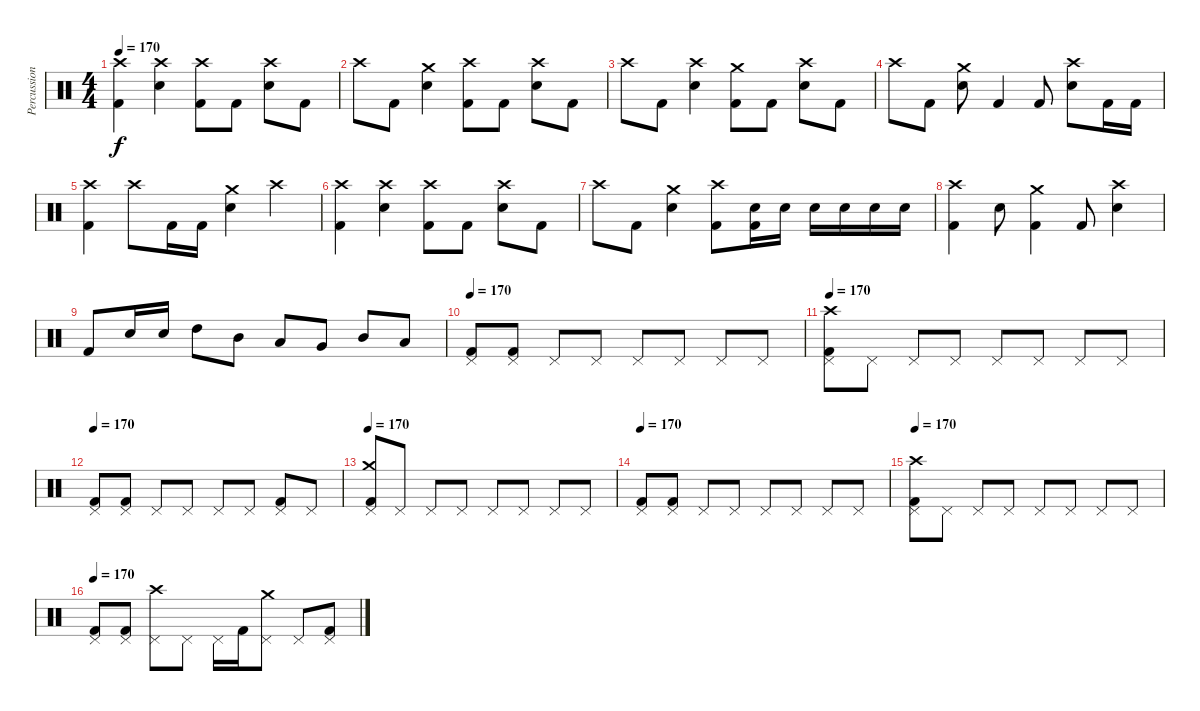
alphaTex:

\track ("Percussion" "Percussion") {instrument percussion}
\staff {score}
\articulation defaults
\ts (4 4)
\tempo 170
\clef neutral
\ks c
("Crash high (hit)" "Kick (hit) 2").4{dy f} ("Crash high (hit)" "Electric Snare (hit)").4 ("Crash high (hit)" "Kick (hit) 2").8 "Kick (hit) 2".8 ("Crash high (hit)" "Electric Snare (hit)").8 "Kick (hit) 2".8 |
"Crash high (hit)".8 "Kick (hit) 2".8 ("Crash medium (hit)" "Electric Snare (hit)").4 ("Crash high (hit)" "Kick (hit) 2").8 "Kick (hit) 2".8 ("Crash high (hit)" "Electric Snare (hit)").8 "Kick (hit) 2".8 |
"Crash high (hit)".8 "Kick (hit) 2".8 ("Crash high (hit)" "Electric Snare (hit)").4 ("Crash medium (hit)" "Kick (hit) 2").8 "Kick (hit) 2".8 ("Crash high (hit)" "Electric Snare (hit)").8 "Kick (hit) 2".8 |
"Crash high (hit)".8 "Kick (hit) 2".8 ("Crash medium (hit)" "Electric Snare (hit)").8 "Kick (hit) 2".4 "Kick (hit) 2".8 ("Crash high (hit)" "Electric Snare (hit)").8 "Kick (hit) 2".16 "Kick (hit) 2".16 |
("Crash high (hit)" "Kick (hit) 2").4 "Crash high (hit)".8 "Kick (hit) 2".16 "Kick (hit) 2".16 ("Crash medium (hit)" "Electric Snare (hit)").4 "Crash high (hit)".4 |
("Crash high (hit)" "Kick (hit) 2").4 ("Crash high (hit)" "Electric Snare (hit)").4 ("Crash high (hit)" "Kick (hit) 2").8 "Kick (hit) 2".8 ("Crash high (hit)" "Electric Snare (hit)").8 "Kick (hit) 2".8 |
"Crash high (hit)".8 "Kick (hit) 2".8 ("Crash medium (hit)" "Electric Snare (hit)").4 ("Crash high (hit)" "Kick (hit) 2").8 ("Electric Snare (hit)" "Kick (hit) 2").16 "Electric Snare (hit)".16 "Electric Snare (hit)".16 "Electric Snare (hit)".16 "Electric Snare (hit)".16 "Electric Snare (hit)".16 |
("Crash high (hit)" "Kick (hit) 2").4 "Electric Snare (hit)".8 ("Crash medium (hit)" "Kick (hit) 2").4 "Kick (hit) 2".8 ("Crash high (hit)" "Electric Snare (hit)").4 |
"Kick (hit) 2".8 "Electric Snare (hit)".16 "Electric Snare (hit)".16 "High Tom (hit)".8 "Mid Tom (hit)".8 "Low Tom (hit)".8 "Very Low Tom (hit)".8 "Mid Tom (hit)".8 "Low Tom (hit)".8 |
\tempo 170
("Pedal Hi-Hat (hit)" "Kick (hit) 2").8 ("Pedal Hi-Hat (hit)" "Kick (hit) 2").8 "Pedal Hi-Hat (hit)".8 "Pedal Hi-Hat (hit)".8 "Pedal Hi-Hat (hit)".8 "Pedal Hi-Hat (hit)".8 "Pedal Hi-Hat (hit)".8 "Pedal Hi-Hat (hit)".8 |
\tempo 170
("Crash high (hit)" "Pedal Hi-Hat (hit)" "Kick (hit) 2").8 "Pedal Hi-Hat (hit)".8 "Pedal Hi-Hat (hit)".8 "Pedal Hi-Hat (hit)".8 "Pedal Hi-Hat (hit)".8 "Pedal Hi-Hat (hit)".8 "Pedal Hi-Hat (hit)".8 "Pedal Hi-Hat (hit)".8 |
\tempo 170
("Pedal Hi-Hat (hit)" "Kick (hit) 2").8 ("Pedal Hi-Hat (hit)" "Kick (hit) 2").8 "Pedal Hi-Hat (hit)".8 "Pedal Hi-Hat (hit)".8 "Pedal Hi-Hat (hit)".8 "Pedal Hi-Hat (hit)".8 ("Pedal Hi-Hat (hit)" "Kick (hit) 2").8 "Pedal Hi-Hat (hit)".8 |
\tempo 170
("Crash medium (hit)" "Pedal Hi-Hat (hit)" "Kick (hit) 2").8 "Pedal Hi-Hat (hit)".8 "Pedal Hi-Hat (hit)".8 "Pedal Hi-Hat (hit)".8 "Pedal Hi-Hat (hit)".8 "Pedal Hi-Hat (hit)".8 "Pedal Hi-Hat (hit)".8 "Pedal Hi-Hat (hit)".8 |
\tempo 170
("Pedal Hi-Hat (hit)" "Kick (hit) 2").8 ("Pedal Hi-Hat (hit)" "Kick (hit) 2").8 "Pedal Hi-Hat (hit)".8 "Pedal Hi-Hat (hit)".8 "Pedal Hi-Hat (hit)".8 "Pedal Hi-Hat (hit)".8 "Pedal Hi-Hat (hit)".8 "Pedal Hi-Hat (hit)".8 |
\tempo 170
("Crash high (hit)" "Pedal Hi-Hat (hit)" "Kick (hit) 2").8 "Pedal Hi-Hat (hit)".8 "Pedal Hi-Hat (hit)".8 "Pedal Hi-Hat (hit)".8 "Pedal Hi-Hat (hit)".8 "Pedal Hi-Hat (hit)".8 "Pedal Hi-Hat (hit)".8 "Pedal Hi-Hat (hit)".8 |
\tempo 170
("Pedal Hi-Hat (hit)" "Kick (hit) 2").8 ("Pedal Hi-Hat (hit)" "Kick (hit) 2").8 ("Crash high (hit)" "Pedal Hi-Hat (hit)").8 "Pedal Hi-Hat (hit)".8 "Pedal Hi-Hat (hit)".16 "Kick (hit) 2".16 ("Crash medium (hit)" "Pedal Hi-Hat (hit)").8 "Pedal Hi-Hat (hit)".8 ("Pedal Hi-Hat (hit)" "Kick (hit) 2").8
